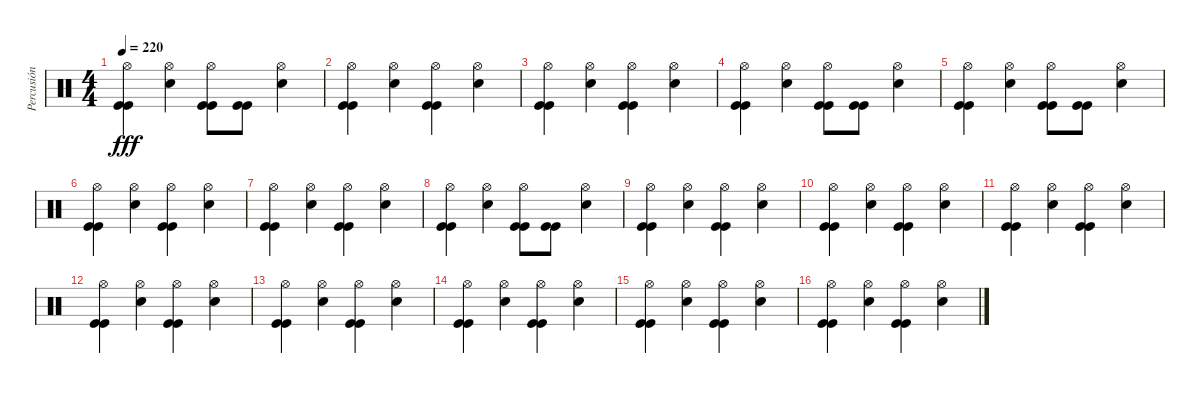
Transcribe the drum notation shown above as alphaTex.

\track ("Percusión" "Percusión") {instrument percussion}
\staff {score}
\articulation defaults
\ts (4 4)
\tempo 220
\clef neutral
\ks c
("Hi-Hat (open)" "Kick (hit)" "Kick (hit)").4{dy fff} ("Hi-Hat (open)" "Snare (hit) 2").4 ("Hi-Hat (open)" "Kick (hit)" "Kick (hit)").8 ("Kick (hit)" "Kick (hit)").8 ("Hi-Hat (open)" "Snare (hit) 2").4 |
("Hi-Hat (open)" "Kick (hit)" "Kick (hit)").4 ("Hi-Hat (open)" "Snare (hit) 2").4 ("Hi-Hat (open)" "Kick (hit)" "Kick (hit)").4 ("Hi-Hat (open)" "Snare (hit) 2").4 |
("Hi-Hat (open)" "Kick (hit)" "Kick (hit)").4 ("Hi-Hat (open)" "Snare (hit) 2").4 ("Hi-Hat (open)" "Kick (hit)" "Kick (hit)").4 ("Hi-Hat (open)" "Snare (hit) 2").4 |
("Hi-Hat (open)" "Kick (hit)" "Kick (hit)").4 ("Hi-Hat (open)" "Snare (hit) 2").4 ("Hi-Hat (open)" "Kick (hit)" "Kick (hit)").8 ("Kick (hit)" "Kick (hit)").8 ("Hi-Hat (open)" "Snare (hit) 2").4 |
("Hi-Hat (open)" "Kick (hit)" "Kick (hit)").4 ("Hi-Hat (open)" "Snare (hit) 2").4 ("Hi-Hat (open)" "Kick (hit)" "Kick (hit)").8 ("Kick (hit)" "Kick (hit)").8 ("Hi-Hat (open)" "Snare (hit) 2").4 |
("Hi-Hat (open)" "Kick (hit)" "Kick (hit)").4 ("Hi-Hat (open)" "Snare (hit) 2").4 ("Hi-Hat (open)" "Kick (hit)" "Kick (hit)").4 ("Hi-Hat (open)" "Snare (hit) 2").4 |
("Hi-Hat (open)" "Kick (hit)" "Kick (hit)").4 ("Hi-Hat (open)" "Snare (hit) 2").4 ("Hi-Hat (open)" "Kick (hit)" "Kick (hit)").4 ("Hi-Hat (open)" "Snare (hit) 2").4 |
("Hi-Hat (open)" "Kick (hit)" "Kick (hit)").4 ("Hi-Hat (open)" "Snare (hit) 2").4 ("Hi-Hat (open)" "Kick (hit)" "Kick (hit)").8 ("Kick (hit)" "Kick (hit)").8 ("Hi-Hat (open)" "Snare (hit) 2").4 |
("Hi-Hat (open)" "Kick (hit)" "Kick (hit)").4 ("Hi-Hat (open)" "Snare (hit) 2").4 ("Hi-Hat (open)" "Kick (hit)" "Kick (hit)").4 ("Hi-Hat (open)" "Snare (hit) 2").4 |
("Hi-Hat (open)" "Kick (hit)" "Kick (hit)").4 ("Hi-Hat (open)" "Snare (hit) 2").4 ("Hi-Hat (open)" "Kick (hit)" "Kick (hit)").4 ("Hi-Hat (open)" "Snare (hit) 2").4 |
("Hi-Hat (open)" "Kick (hit)" "Kick (hit)").4 ("Hi-Hat (open)" "Snare (hit) 2").4 ("Hi-Hat (open)" "Kick (hit)" "Kick (hit)").4 ("Hi-Hat (open)" "Snare (hit) 2").4 |
("Hi-Hat (open)" "Kick (hit)" "Kick (hit)").4 ("Hi-Hat (open)" "Snare (hit) 2").4 ("Hi-Hat (open)" "Kick (hit)" "Kick (hit)").4 ("Hi-Hat (open)" "Snare (hit) 2").4 |
("Hi-Hat (open)" "Kick (hit)" "Kick (hit)").4 ("Hi-Hat (open)" "Snare (hit) 2").4 ("Hi-Hat (open)" "Kick (hit)" "Kick (hit)").4 ("Hi-Hat (open)" "Snare (hit) 2").4 |
("Hi-Hat (open)" "Kick (hit)" "Kick (hit)").4 ("Hi-Hat (open)" "Snare (hit) 2").4 ("Hi-Hat (open)" "Kick (hit)" "Kick (hit)").4 ("Hi-Hat (open)" "Snare (hit) 2").4 |
("Hi-Hat (open)" "Kick (hit)" "Kick (hit)").4 ("Hi-Hat (open)" "Snare (hit) 2").4 ("Hi-Hat (open)" "Kick (hit)" "Kick (hit)").4 ("Hi-Hat (open)" "Snare (hit) 2").4 |
("Hi-Hat (open)" "Kick (hit)" "Kick (hit)").4 ("Hi-Hat (open)" "Snare (hit) 2").4 ("Hi-Hat (open)" "Kick (hit)" "Kick (hit)").4 ("Hi-Hat (open)" "Snare (hit) 2").4
